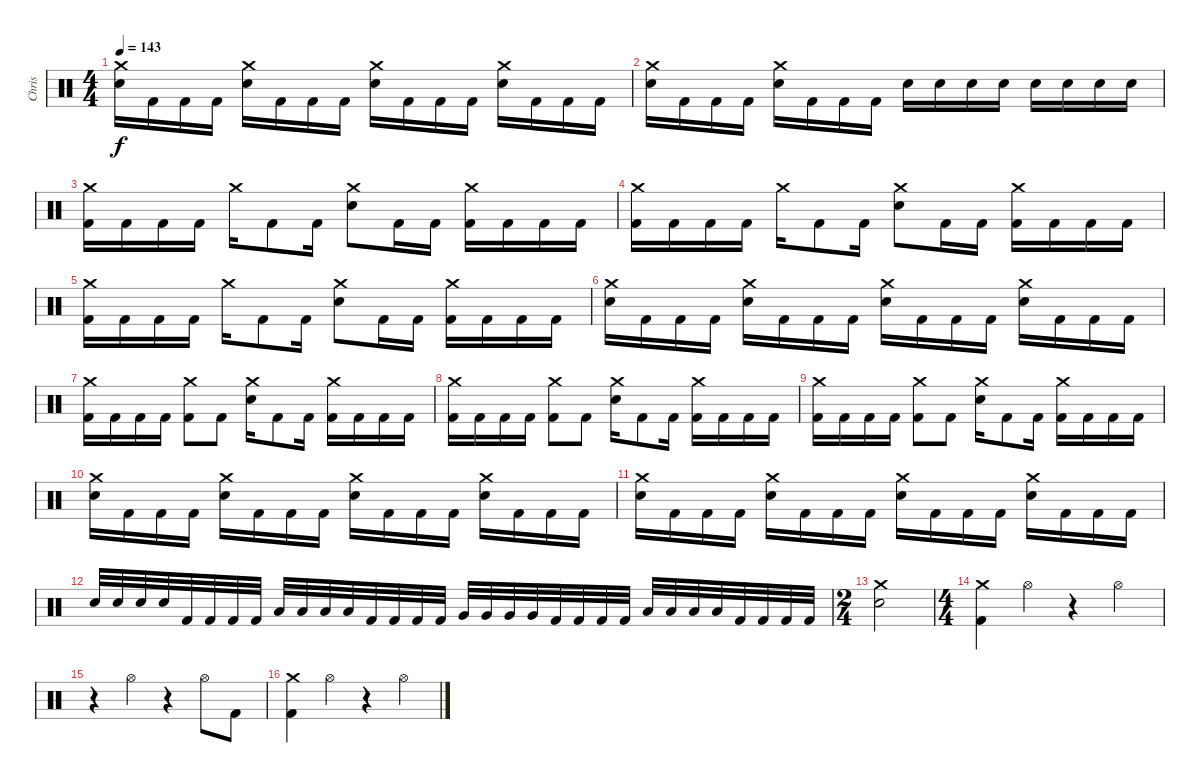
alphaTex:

\track ("Chris" "Chris") {instrument percussion}
\staff {score}
\articulation defaults
\ts (4 4)
\tempo 143
\clef neutral
\ks c
("Crash medium (hit)" "Electric Snare (hit)").16{dy f} "Kick (hit) 2".16 "Kick (hit) 2".16 "Kick (hit) 2".16 ("Crash medium (hit)" "Electric Snare (hit)").16 "Kick (hit) 2".16 "Kick (hit) 2".16 "Kick (hit) 2".16 ("Crash medium (hit)" "Electric Snare (hit)").16 "Kick (hit) 2".16 "Kick (hit) 2".16 "Kick (hit) 2".16 ("Crash medium (hit)" "Electric Snare (hit)").16 "Kick (hit) 2".16 "Kick (hit) 2".16 "Kick (hit) 2".16 |
("Crash medium (hit)" "Electric Snare (hit)").16 "Kick (hit) 2".16 "Kick (hit) 2".16 "Kick (hit) 2".16 ("Crash medium (hit)" "Electric Snare (hit)").16 "Kick (hit) 2".16 "Kick (hit) 2".16 "Kick (hit) 2".16 "Electric Snare (hit)".16 "Electric Snare (hit)".16 "Electric Snare (hit)".16 "Electric Snare (hit)".16 "Electric Snare (hit)".16 "Electric Snare (hit)".16 "Electric Snare (hit)".16 "Electric Snare (hit)".16 |
("Crash medium (hit)" "Kick (hit) 2").16 "Kick (hit) 2".16 "Kick (hit) 2".16 "Kick (hit) 2".16 "Crash medium (hit)".16 "Kick (hit) 2".8 "Kick (hit) 2".16 ("Crash medium (hit)" "Electric Snare (hit)").8 "Kick (hit) 2".16 "Kick (hit) 2".16 ("Crash medium (hit)" "Kick (hit) 2").16 "Kick (hit) 2".16 "Kick (hit) 2".16 "Kick (hit) 2".16 |
("Crash medium (hit)" "Kick (hit) 2").16 "Kick (hit) 2".16 "Kick (hit) 2".16 "Kick (hit) 2".16 "Crash medium (hit)".16 "Kick (hit) 2".8 "Kick (hit) 2".16 ("Crash medium (hit)" "Electric Snare (hit)").8 "Kick (hit) 2".16 "Kick (hit) 2".16 ("Crash medium (hit)" "Kick (hit) 2").16 "Kick (hit) 2".16 "Kick (hit) 2".16 "Kick (hit) 2".16 |
("Crash medium (hit)" "Kick (hit) 2").16 "Kick (hit) 2".16 "Kick (hit) 2".16 "Kick (hit) 2".16 "Crash medium (hit)".16 "Kick (hit) 2".8 "Kick (hit) 2".16 ("Crash medium (hit)" "Electric Snare (hit)").8 "Kick (hit) 2".16 "Kick (hit) 2".16 ("Crash medium (hit)" "Kick (hit) 2").16 "Kick (hit) 2".16 "Kick (hit) 2".16 "Kick (hit) 2".16 |
("Crash medium (hit)" "Electric Snare (hit)").16 "Kick (hit) 2".16 "Kick (hit) 2".16 "Kick (hit) 2".16 ("Crash medium (hit)" "Electric Snare (hit)").16 "Kick (hit) 2".16 "Kick (hit) 2".16 "Kick (hit) 2".16 ("Crash medium (hit)" "Electric Snare (hit)").16 "Kick (hit) 2".16 "Kick (hit) 2".16 "Kick (hit) 2".16 ("Crash medium (hit)" "Electric Snare (hit)").16 "Kick (hit) 2".16 "Kick (hit) 2".16 "Kick (hit) 2".16 |
("Crash medium (hit)" "Kick (hit) 2").16 "Kick (hit) 2".16 "Kick (hit) 2".16 "Kick (hit) 2".16 ("Crash medium (hit)" "Kick (hit) 2").8 "Kick (hit) 2".8 ("Crash medium (hit)" "Electric Snare (hit)").16 "Kick (hit) 2".8 "Kick (hit) 2".16 ("Crash medium (hit)" "Kick (hit) 2").16 "Kick (hit) 2".16 "Kick (hit) 2".16 "Kick (hit) 2".16 |
("Crash medium (hit)" "Kick (hit) 2").16 "Kick (hit) 2".16 "Kick (hit) 2".16 "Kick (hit) 2".16 ("Crash medium (hit)" "Kick (hit) 2").8 "Kick (hit) 2".8 ("Crash medium (hit)" "Electric Snare (hit)").16 "Kick (hit) 2".8 "Kick (hit) 2".16 ("Crash medium (hit)" "Kick (hit) 2").16 "Kick (hit) 2".16 "Kick (hit) 2".16 "Kick (hit) 2".16 |
("Crash medium (hit)" "Kick (hit) 2").16 "Kick (hit) 2".16 "Kick (hit) 2".16 "Kick (hit) 2".16 ("Crash medium (hit)" "Kick (hit) 2").8 "Kick (hit) 2".8 ("Crash medium (hit)" "Electric Snare (hit)").16 "Kick (hit) 2".8 "Kick (hit) 2".16 ("Crash medium (hit)" "Kick (hit) 2").16 "Kick (hit) 2".16 "Kick (hit) 2".16 "Kick (hit) 2".16 |
("Crash medium (hit)" "Electric Snare (hit)").16 "Kick (hit) 2".16 "Kick (hit) 2".16 "Kick (hit) 2".16 ("Crash medium (hit)" "Electric Snare (hit)").16 "Kick (hit) 2".16 "Kick (hit) 2".16 "Kick (hit) 2".16 ("Crash medium (hit)" "Electric Snare (hit)").16 "Kick (hit) 2".16 "Kick (hit) 2".16 "Kick (hit) 2".16 ("Crash medium (hit)" "Electric Snare (hit)").16 "Kick (hit) 2".16 "Kick (hit) 2".16 "Kick (hit) 2".16 |
("Crash medium (hit)" "Electric Snare (hit)").16 "Kick (hit) 2".16 "Kick (hit) 2".16 "Kick (hit) 2".16 ("Crash medium (hit)" "Electric Snare (hit)").16 "Kick (hit) 2".16 "Kick (hit) 2".16 "Kick (hit) 2".16 ("Crash medium (hit)" "Electric Snare (hit)").16 "Kick (hit) 2".16 "Kick (hit) 2".16 "Kick (hit) 2".16 ("Crash medium (hit)" "Electric Snare (hit)").16 "Kick (hit) 2".16 "Kick (hit) 2".16 "Kick (hit) 2".16 |
"Electric Snare (hit)".32 "Electric Snare (hit)".32 "Electric Snare (hit)".32 "Electric Snare (hit)".32 "Kick (hit) 2".32 "Kick (hit) 2".32 "Kick (hit) 2".32 "Kick (hit) 2".32 "Low Tom (hit)".32 "Low Tom (hit)".32 "Low Tom (hit)".32 "Low Tom (hit)".32 "Kick (hit) 2".32 "Kick (hit) 2".32 "Kick (hit) 2".32 "Kick (hit) 2".32 "Very Low Tom (hit)".32 "Very Low Tom (hit)".32 "Very Low Tom (hit)".32 "Very Low Tom (hit)".32 "Kick (hit) 2".32 "Kick (hit) 2".32 "Kick (hit) 2".32 "Kick (hit) 2".32 "Low Floor Tom (hit)".32 "Low Floor Tom (hit)".32 "Low Floor Tom (hit)".32 "Low Floor Tom (hit)".32 "Kick (hit) 2".32 "Kick (hit) 2".32 "Kick (hit) 2".32 "Kick (hit) 2".32 |
\ts (2 4)
("Crash medium (hit)" "Electric Snare (hit)").2 |
\ts (4 4)
("Crash medium (hit)" "Kick (hit) 2").4 "Hi-Hat (open)".4 r.4 "Hi-Hat (open)".4 |
r.4 "Hi-Hat (open)".4 r.4 "Hi-Hat (open)".8 "Kick (hit) 2".8 |
("Crash medium (hit)" "Kick (hit) 2").4 "Hi-Hat (open)".4 r.4 "Hi-Hat (open)".4
